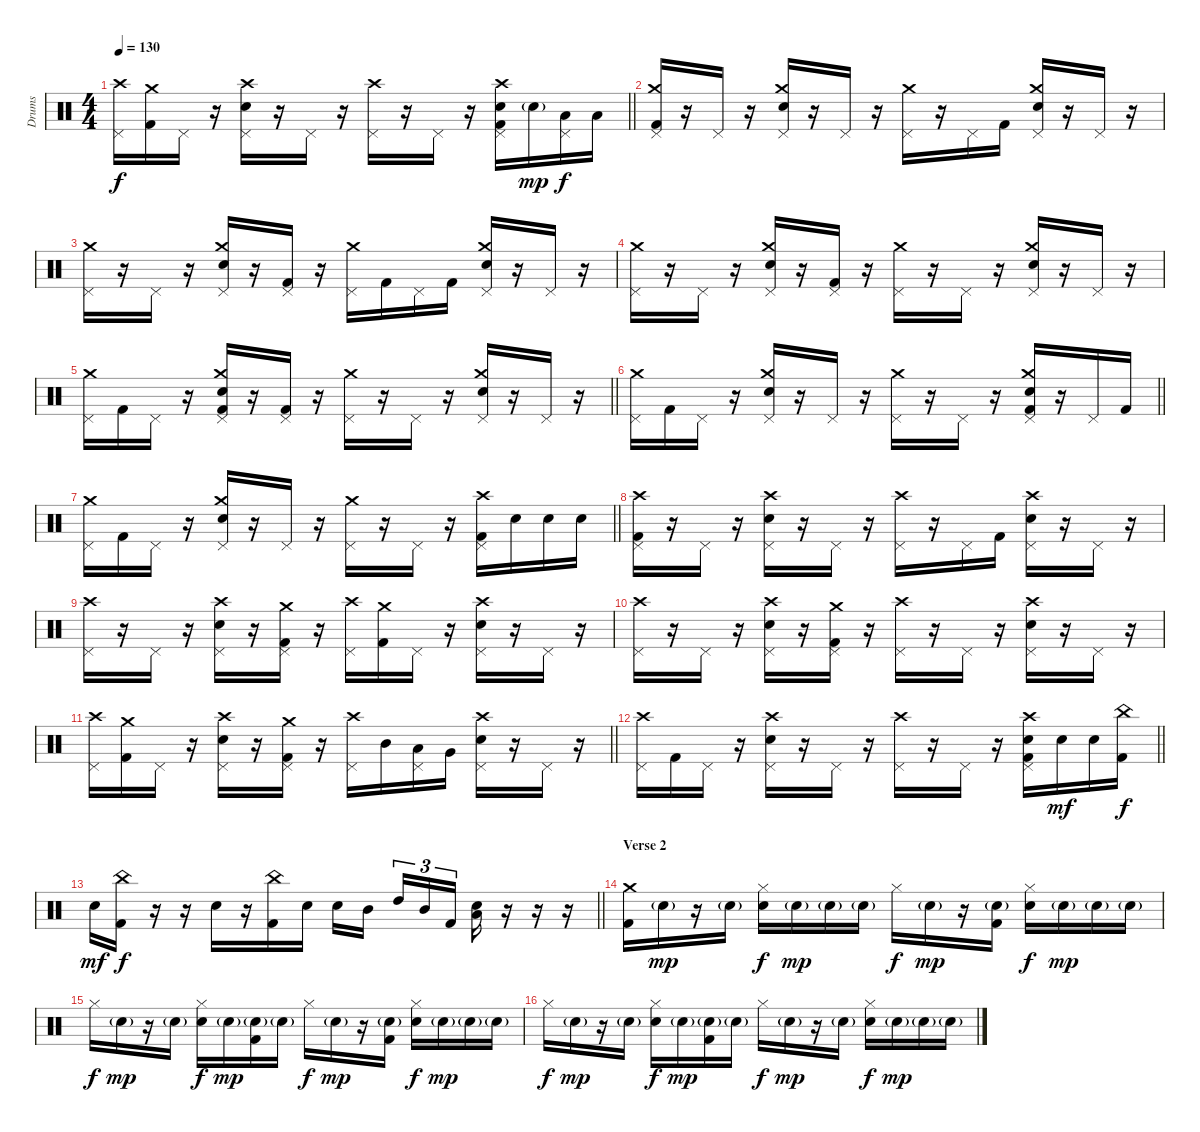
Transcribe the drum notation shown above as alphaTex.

\track ("Drums" "Drums") {instrument percussion}
\staff {score}
\articulation defaults
\ts (4 4)
\tempo 130
\clef neutral
\barLineRight lightlight
\ks c
("Crash high (hit)" "Pedal Hi-Hat (hit)").16{dy f} ("Crash medium (hit)" "Kick (hit) 2").16 "Pedal Hi-Hat (hit)".16 r.16 ("Crash high (hit)" "Pedal Hi-Hat (hit)" "Electric Snare (hit)").16 r.16 "Pedal Hi-Hat (hit)".16 r.16 ("Crash high (hit)" "Pedal Hi-Hat (hit)").16 r.16 "Pedal Hi-Hat (hit)".16 r.16 ("Crash high (hit)" "Pedal Hi-Hat (hit)" "Electric Snare (hit)" "Kick (hit) 2").16 "Electric Snare (hit)"{g}.16{dy mp} ("Pedal Hi-Hat (hit)" "Low Tom (hit)").16{dy f} "Low Tom (hit)".16 |
("Crash medium (hit)" "Pedal Hi-Hat (hit)" "Kick (hit) 2").16 r.16 "Pedal Hi-Hat (hit)".16 r.16 ("Crash medium (hit)" "Pedal Hi-Hat (hit)" "Electric Snare (hit)").16 r.16 "Pedal Hi-Hat (hit)".16 r.16 ("Crash medium (hit)" "Pedal Hi-Hat (hit)").16 r.16 "Pedal Hi-Hat (hit)".16 "Kick (hit) 2".16 ("Crash medium (hit)" "Pedal Hi-Hat (hit)" "Electric Snare (hit)").16 r.16 "Pedal Hi-Hat (hit)".16 r.16 |
("Crash medium (hit)" "Pedal Hi-Hat (hit)").16 r.16 "Pedal Hi-Hat (hit)".16 r.16 ("Crash medium (hit)" "Pedal Hi-Hat (hit)" "Electric Snare (hit)").16 r.16 ("Pedal Hi-Hat (hit)" "Kick (hit) 2").16 r.16 ("Crash medium (hit)" "Pedal Hi-Hat (hit)").16 "Kick (hit) 2".16 "Pedal Hi-Hat (hit)".16 "Kick (hit) 2".16 ("Crash medium (hit)" "Pedal Hi-Hat (hit)" "Electric Snare (hit)").16 r.16 "Pedal Hi-Hat (hit)".16 r.16 |
("Crash medium (hit)" "Pedal Hi-Hat (hit)").16 r.16 "Pedal Hi-Hat (hit)".16 r.16 ("Crash medium (hit)" "Pedal Hi-Hat (hit)" "Electric Snare (hit)").16 r.16 ("Pedal Hi-Hat (hit)" "Kick (hit) 2").16 r.16 ("Crash medium (hit)" "Pedal Hi-Hat (hit)").16 r.16 "Pedal Hi-Hat (hit)".16 r.16 ("Crash medium (hit)" "Pedal Hi-Hat (hit)" "Electric Snare (hit)").16 r.16 "Pedal Hi-Hat (hit)".16 r.16 |
\barLineRight lightlight
("Crash medium (hit)" "Pedal Hi-Hat (hit)").16 "Kick (hit) 2".16 "Pedal Hi-Hat (hit)".16 r.16 ("Crash medium (hit)" "Pedal Hi-Hat (hit)" "Electric Snare (hit)" "Kick (hit) 2").16 r.16 ("Pedal Hi-Hat (hit)" "Kick (hit) 2").16 r.16 ("Crash medium (hit)" "Pedal Hi-Hat (hit)").16 r.16 "Pedal Hi-Hat (hit)".16 r.16 ("Crash medium (hit)" "Pedal Hi-Hat (hit)" "Electric Snare (hit)").16 r.16 "Pedal Hi-Hat (hit)".16 r.16 |
\barLineRight lightlight
("Crash medium (hit)" "Pedal Hi-Hat (hit)").16 "Kick (hit) 2".16 "Pedal Hi-Hat (hit)".16 r.16 ("Crash medium (hit)" "Pedal Hi-Hat (hit)" "Electric Snare (hit)").16 r.16 "Pedal Hi-Hat (hit)".16 r.16 ("Crash medium (hit)" "Pedal Hi-Hat (hit)").16 r.16 "Pedal Hi-Hat (hit)".16 r.16 ("Crash medium (hit)" "Pedal Hi-Hat (hit)" "Electric Snare (hit)" "Kick (hit) 2").16 r.16 "Pedal Hi-Hat (hit)".16 "Kick (hit) 2".16 |
\barLineRight lightlight
("Crash medium (hit)" "Pedal Hi-Hat (hit)").16 "Kick (hit) 2".16 "Pedal Hi-Hat (hit)".16 r.16 ("Crash medium (hit)" "Pedal Hi-Hat (hit)" "Electric Snare (hit)").16 r.16 "Pedal Hi-Hat (hit)".16 r.16 ("Crash medium (hit)" "Pedal Hi-Hat (hit)").16 r.16 "Pedal Hi-Hat (hit)".16 r.16 ("Crash high (hit)" "Pedal Hi-Hat (hit)" "Kick (hit) 2").16 "Electric Snare (hit)".16 "Electric Snare (hit)".16 "Electric Snare (hit)".16 |
("Crash high (hit)" "Pedal Hi-Hat (hit)" "Kick (hit) 2").16 r.16 "Pedal Hi-Hat (hit)".16 r.16 ("Crash high (hit)" "Pedal Hi-Hat (hit)" "Electric Snare (hit)").16 r.16 "Pedal Hi-Hat (hit)".16 r.16 ("Crash high (hit)" "Pedal Hi-Hat (hit)").16 r.16 "Pedal Hi-Hat (hit)".16 "Kick (hit) 2".16 ("Crash high (hit)" "Pedal Hi-Hat (hit)" "Electric Snare (hit)").16 r.16 "Pedal Hi-Hat (hit)".16 r.16 |
("Crash high (hit)" "Pedal Hi-Hat (hit)").16 r.16 "Pedal Hi-Hat (hit)".16 r.16 ("Crash high (hit)" "Pedal Hi-Hat (hit)" "Electric Snare (hit)").16 r.16 ("Crash medium (hit)" "Pedal Hi-Hat (hit)" "Kick (hit) 2").16 r.16 ("Crash high (hit)" "Pedal Hi-Hat (hit)").16 ("Crash medium (hit)" "Kick (hit) 2").16 "Pedal Hi-Hat (hit)".16 r.16 ("Crash high (hit)" "Pedal Hi-Hat (hit)" "Electric Snare (hit)").16 r.16 "Pedal Hi-Hat (hit)".16 r.16 |
("Crash high (hit)" "Pedal Hi-Hat (hit)").16 r.16 "Pedal Hi-Hat (hit)".16 r.16 ("Crash high (hit)" "Pedal Hi-Hat (hit)" "Electric Snare (hit)").16 r.16 ("Crash medium (hit)" "Pedal Hi-Hat (hit)" "Kick (hit) 2").16 r.16 ("Crash high (hit)" "Pedal Hi-Hat (hit)").16 r.16 "Pedal Hi-Hat (hit)".16 r.16 ("Crash high (hit)" "Pedal Hi-Hat (hit)" "Electric Snare (hit)").16 r.16 "Pedal Hi-Hat (hit)".16 r.16 |
\barLineRight lightlight
("Crash high (hit)" "Pedal Hi-Hat (hit)").16 ("Crash medium (hit)" "Kick (hit) 2").16 "Pedal Hi-Hat (hit)".16 r.16 ("Crash high (hit)" "Pedal Hi-Hat (hit)" "Electric Snare (hit)").16 r.16 ("Crash medium (hit)" "Pedal Hi-Hat (hit)" "Kick (hit) 2").16 r.16 ("Crash high (hit)" "Pedal Hi-Hat (hit)").16 "Mid Tom (hit)".16 ("Pedal Hi-Hat (hit)" "Low Tom (hit)").16 "Very Low Tom (hit)".16 ("Crash high (hit)" "Pedal Hi-Hat (hit)" "Electric Snare (hit)").16 r.16 "Pedal Hi-Hat (hit)".16 r.16 |
\barLineRight lightlight
("Crash high (hit)" "Pedal Hi-Hat (hit)").16 "Kick (hit) 2".16 "Pedal Hi-Hat (hit)".16 r.16 ("Crash high (hit)" "Pedal Hi-Hat (hit)" "Electric Snare (hit)").16 r.16 "Pedal Hi-Hat (hit)".16 r.16 ("Crash high (hit)" "Pedal Hi-Hat (hit)").16 r.16 "Pedal Hi-Hat (hit)".16 r.16 ("Crash high (hit)" "Pedal Hi-Hat (hit)" "Electric Snare (hit)" "Kick (hit) 2").16 "Electric Snare (hit)".16{dy mf} "Electric Snare (hit)".16 ("China (hit)" "Kick (hit) 2").16{dy f} |
\barLineRight lightlight "Electric Snare (hit)".16{dy mf}
("China (hit)" "Kick (hit) 2").16{dy f} r.16 r.16 "Electric Snare (hit)".16 r.16 ("China (hit)" "Kick (hit) 2").16 "Electric Snare (hit)".16 "Electric Snare (hit)".16 "Mid Tom (hit)".16{beam splitsecondary} "High Tom (hit)".16{tu (3 2)} "Mid Tom (hit)".16{tu (3 2)} "Kick (hit) 2".16{tu (3 2)} ("Electric Snare (hit)" "Low Tom (hit)").16 r.16 r.16 r.16 |
\section ("" "Verse 2")
("Crash medium (hit)" "Kick (hit) 2").16 "Electric Snare (hit)"{g}.16{dy mp} r.16 "Electric Snare (hit)"{g}.16 ("Hi-Hat (closed)" "Electric Snare (hit)").16{dy f} "Electric Snare (hit)"{g}.16{dy mp} "Electric Snare (hit)"{g}.16 "Electric Snare (hit)"{g}.16 "Hi-Hat (closed)".16{dy f} "Electric Snare (hit)"{g}.16{dy mp} r.16 ("Electric Snare (hit)"{g} "Kick (hit) 2").16 ("Hi-Hat (closed)" "Electric Snare (hit)").16{dy f} "Electric Snare (hit)"{g}.16{dy mp} "Electric Snare (hit)"{g}.16 "Electric Snare (hit)"{g}.16 |
"Hi-Hat (closed)".16{dy f} "Electric Snare (hit)"{g}.16{dy mp} r.16 "Electric Snare (hit)"{g}.16 ("Hi-Hat (closed)" "Electric Snare (hit)").16{dy f} "Electric Snare (hit)"{g}.16{dy mp} ("Electric Snare (hit)"{g} "Kick (hit) 2").16 "Electric Snare (hit)"{g}.16 "Hi-Hat (closed)".16{dy f} "Electric Snare (hit)"{g}.16{dy mp} r.16 ("Electric Snare (hit)"{g} "Kick (hit) 2").16 ("Hi-Hat (closed)" "Electric Snare (hit)").16{dy f} "Electric Snare (hit)"{g}.16{dy mp} "Electric Snare (hit)"{g}.16 "Electric Snare (hit)"{g}.16 |
"Hi-Hat (closed)".16{dy f} "Electric Snare (hit)"{g}.16{dy mp} r.16 "Electric Snare (hit)"{g}.16 ("Hi-Hat (closed)" "Electric Snare (hit)").16{dy f} "Electric Snare (hit)"{g}.16{dy mp} ("Electric Snare (hit)"{g} "Kick (hit) 2").16 "Electric Snare (hit)"{g}.16 "Hi-Hat (closed)".16{dy f} "Electric Snare (hit)"{g}.16{dy mp} r.16 "Electric Snare (hit)"{g}.16 ("Hi-Hat (closed)" "Electric Snare (hit)").16{dy f} "Electric Snare (hit)"{g}.16{dy mp} "Electric Snare (hit)"{g}.16 "Electric Snare (hit)"{g}.16
